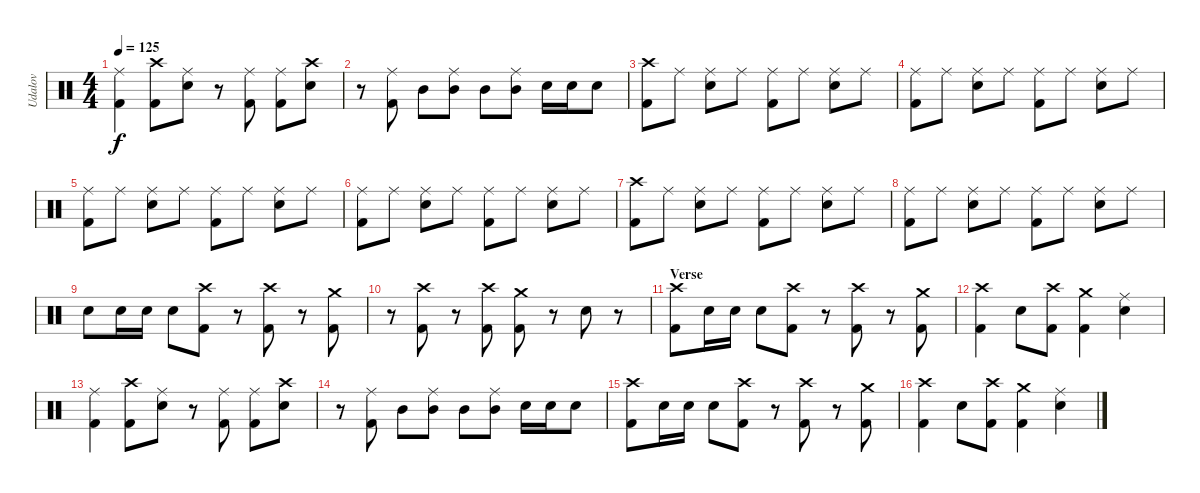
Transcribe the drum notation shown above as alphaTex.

\track ("Udalov" "Udalov") {instrument percussion}
\staff {score}
\articulation defaults
\ts (4 4)
\tempo 125
\clef neutral
\ks c
("Kick (hit) 2" "Ride (middle)").4{dy f} ("Kick (hit) 2" "Crash high (hit)").8 ("Snare (hit) 2" "Ride (middle)").8 r.8 ("Kick (hit) 2" "Ride (middle)").8 ("Kick (hit) 2" "Ride (middle)").8 ("Snare (hit) 2" "Crash high (hit)").8 |
r.8 ("Kick (hit) 2" "Ride (middle)").8 "Mid Tom (hit)".8 ("Mid Tom (hit)" "Ride (middle)").8 "Mid Tom (hit)".8 ("Mid Tom (hit)" "Ride (middle)").8 "Electric Snare (hit)".16 "Electric Snare (hit)".16 "Electric Snare (hit)".8 |
("Kick (hit) 2" "Crash high (hit)").8 "Ride (middle)".8 ("Snare (hit) 2" "Ride (middle)").8 "Ride (middle)".8 ("Kick (hit) 2" "Ride (middle)").8 "Ride (middle)".8 ("Snare (hit) 2" "Ride (middle)").8 "Ride (middle)".8 |
("Kick (hit) 2" "Ride (middle)").8 "Ride (middle)".8 ("Snare (hit) 2" "Ride (middle)").8 "Ride (middle)".8 ("Kick (hit) 2" "Ride (middle)").8 "Ride (middle)".8 ("Snare (hit) 2" "Ride (middle)").8 "Ride (middle)".8 |
("Kick (hit) 2" "Ride (middle)").8 "Ride (middle)".8 ("Snare (hit) 2" "Ride (middle)").8 "Ride (middle)".8 ("Kick (hit) 2" "Ride (middle)").8 "Ride (middle)".8 ("Snare (hit) 2" "Ride (middle)").8 "Ride (middle)".8 |
("Kick (hit) 2" "Ride (middle)").8 "Ride (middle)".8 ("Snare (hit) 2" "Ride (middle)").8 "Ride (middle)".8 ("Kick (hit) 2" "Ride (middle)").8 "Ride (middle)".8 ("Snare (hit) 2" "Ride (middle)").8 "Ride (middle)".8 |
("Kick (hit) 2" "Crash high (hit)").8 "Ride (middle)".8 ("Snare (hit) 2" "Ride (middle)").8 "Ride (middle)".8 ("Kick (hit) 2" "Ride (middle)").8 "Ride (middle)".8 ("Snare (hit) 2" "Ride (middle)").8 "Ride (middle)".8 |
("Kick (hit) 2" "Ride (middle)").8 "Ride (middle)".8 ("Snare (hit) 2" "Ride (middle)").8 "Ride (middle)".8 ("Kick (hit) 2" "Ride (middle)").8 "Ride (middle)".8 ("Snare (hit) 2" "Ride (middle)").8 "Ride (middle)".8 |
"Snare (hit) 2".8 "Snare (hit) 2".16 "Snare (hit) 2".16 "Snare (hit) 2".8 ("Kick (hit) 2" "Crash high (hit)").8 r.8 ("Kick (hit) 2" "Crash high (hit)").8 r.8 ("Kick (hit) 2" "Crash medium (hit)").8 |
r.8 ("Kick (hit) 2" "Crash high (hit)").8 r.8 ("Kick (hit) 2" "Crash high (hit)").8 ("Kick (hit) 2" "Crash medium (hit)").8 r.8 "Snare (hit) 2".8 r.8 |
\section ("" "Verse")
("Kick (hit) 2" "Crash high (hit)").8 "Snare (hit) 2".16 "Electric Snare (hit)".16 "Snare (hit) 2".8 ("Kick (hit) 2" "Crash high (hit)").8 r.8 ("Kick (hit) 2" "Crash high (hit)").8 r.8 ("Kick (hit) 2" "Crash medium (hit)").8 |
("Kick (hit) 2" "Crash high (hit)").4 "Snare (hit) 2".8 ("Kick (hit) 2" "Crash high (hit)").8 ("Kick (hit) 2" "Crash medium (hit)").4 ("Snare (hit) 2" "Ride (middle)").4 |
("Kick (hit) 2" "Ride (middle)").4 ("Kick (hit) 2" "Crash high (hit)").8 ("Snare (hit) 2" "Ride (middle)").8 r.8 ("Kick (hit) 2" "Ride (middle)").8 ("Kick (hit) 2" "Ride (middle)").8 ("Snare (hit) 2" "Crash high (hit)").8 |
r.8 ("Kick (hit) 2" "Ride (middle)").8 "Mid Tom (hit)".8 ("Mid Tom (hit)" "Ride (middle)").8 "Mid Tom (hit)".8 ("Mid Tom (hit)" "Ride (middle)").8 "Electric Snare (hit)".16 "Electric Snare (hit)".16 "Electric Snare (hit)".8 |
("Kick (hit) 2" "Crash high (hit)").8 "Snare (hit) 2".16 "Electric Snare (hit)".16 "Snare (hit) 2".8 ("Kick (hit) 2" "Crash high (hit)").8 r.8 ("Kick (hit) 2" "Crash high (hit)").8 r.8 ("Kick (hit) 2" "Crash medium (hit)").8 |
("Kick (hit) 2" "Crash high (hit)").4 "Snare (hit) 2".8 ("Kick (hit) 2" "Crash high (hit)").8 ("Kick (hit) 2" "Crash medium (hit)").4 ("Snare (hit) 2" "Ride (middle)").4
